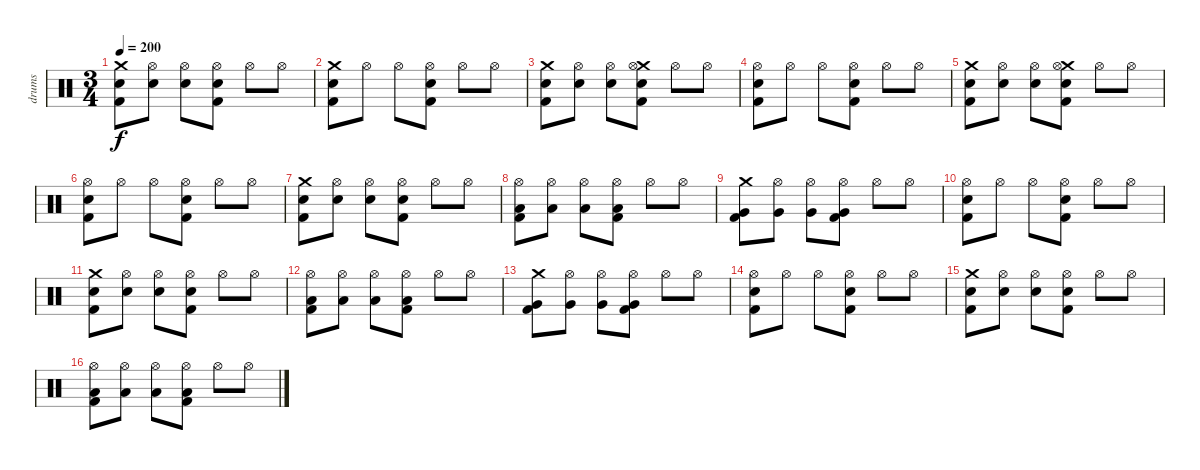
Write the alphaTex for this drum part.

\track ("drums" "drums") {instrument percussion}
\staff {score}
\articulation defaults
\ts (3 4)
\tempo 200
\clef neutral
\ks c
("Crash medium (hit)" "Snare (hit) 2" "Kick (hit) 2").8{dy f} ("Hi-Hat (open)" "Snare (hit) 2").8 ("Hi-Hat (open)" "Snare (hit) 2").8 ("Hi-Hat (open)" "Snare (hit) 2" "Kick (hit) 2").8 "Hi-Hat (open)".8 "Hi-Hat (open)".8 |
("Crash medium (hit)" "Snare (hit) 2" "Kick (hit) 2").8 "Hi-Hat (open)".8 "Hi-Hat (open)".8 ("Hi-Hat (open)" "Snare (hit) 2" "Kick (hit) 2").8 "Hi-Hat (open)".8 "Hi-Hat (open)".8 |
("Crash medium (hit)" "Snare (hit) 2" "Kick (hit) 2").8 ("Hi-Hat (open)" "Snare (hit) 2").8 ("Hi-Hat (open)" "Snare (hit) 2").8 ("Crash medium (hit)" "Hi-Hat (open)" "Snare (hit) 2" "Kick (hit) 2").8 "Hi-Hat (open)".8 "Hi-Hat (open)".8 |
("Hi-Hat (open)" "Snare (hit) 2" "Kick (hit) 2").8 "Hi-Hat (open)".8 "Hi-Hat (open)".8 ("Hi-Hat (open)" "Snare (hit) 2" "Kick (hit) 2").8 "Hi-Hat (open)".8 "Hi-Hat (open)".8 |
("Crash medium (hit)" "Snare (hit) 2" "Kick (hit) 2").8 ("Hi-Hat (open)" "Snare (hit) 2").8 ("Hi-Hat (open)" "Snare (hit) 2").8 ("Crash medium (hit)" "Hi-Hat (open)" "Snare (hit) 2" "Kick (hit) 2").8 "Hi-Hat (open)".8 "Hi-Hat (open)".8 |
("Hi-Hat (open)" "Snare (hit) 2" "Kick (hit) 2").8 "Hi-Hat (open)".8 "Hi-Hat (open)".8 ("Hi-Hat (open)" "Snare (hit) 2" "Kick (hit) 2").8 "Hi-Hat (open)".8 "Hi-Hat (open)".8 |
("Crash medium (hit)" "Snare (hit) 2" "Kick (hit) 2").8 ("Hi-Hat (open)" "Snare (hit) 2").8 ("Hi-Hat (open)" "Snare (hit) 2").8 ("Hi-Hat (open)" "Snare (hit) 2" "Kick (hit) 2").8 "Hi-Hat (open)".8 "Hi-Hat (open)".8 |
("Hi-Hat (open)" "Low Tom (hit)" "Kick (hit) 2").8 ("Hi-Hat (open)" "Low Tom (hit)").8 ("Hi-Hat (open)" "Low Tom (hit)").8 ("Hi-Hat (open)" "Low Tom (hit)" "Kick (hit) 2").8 "Hi-Hat (open)".8 "Hi-Hat (open)".8 |
("Crash medium (hit)" "Very Low Tom (hit)" "Kick (hit) 2").8 ("Hi-Hat (open)" "Very Low Tom (hit)").8 ("Hi-Hat (open)" "Very Low Tom (hit)").8 ("Hi-Hat (open)" "Very Low Tom (hit)" "Kick (hit) 2").8 "Hi-Hat (open)".8 "Hi-Hat (open)".8 |
("Hi-Hat (open)" "Snare (hit) 2" "Kick (hit) 2").8 "Hi-Hat (open)".8 "Hi-Hat (open)".8 ("Hi-Hat (open)" "Snare (hit) 2" "Kick (hit) 2").8 "Hi-Hat (open)".8 "Hi-Hat (open)".8 |
("Crash medium (hit)" "Snare (hit) 2" "Kick (hit) 2").8 ("Hi-Hat (open)" "Snare (hit) 2").8 ("Hi-Hat (open)" "Snare (hit) 2").8 ("Hi-Hat (open)" "Snare (hit) 2" "Kick (hit) 2").8 "Hi-Hat (open)".8 "Hi-Hat (open)".8 |
("Hi-Hat (open)" "Low Tom (hit)" "Kick (hit) 2").8 ("Hi-Hat (open)" "Low Tom (hit)").8 ("Hi-Hat (open)" "Low Tom (hit)").8 ("Hi-Hat (open)" "Low Tom (hit)" "Kick (hit) 2").8 "Hi-Hat (open)".8 "Hi-Hat (open)".8 |
("Crash medium (hit)" "Very Low Tom (hit)" "Kick (hit) 2").8 ("Hi-Hat (open)" "Very Low Tom (hit)").8 ("Hi-Hat (open)" "Very Low Tom (hit)").8 ("Hi-Hat (open)" "Very Low Tom (hit)" "Kick (hit) 2").8 "Hi-Hat (open)".8 "Hi-Hat (open)".8 |
("Hi-Hat (open)" "Snare (hit) 2" "Kick (hit) 2").8 "Hi-Hat (open)".8 "Hi-Hat (open)".8 ("Hi-Hat (open)" "Snare (hit) 2" "Kick (hit) 2").8 "Hi-Hat (open)".8 "Hi-Hat (open)".8 |
("Crash medium (hit)" "Snare (hit) 2" "Kick (hit) 2").8 ("Hi-Hat (open)" "Snare (hit) 2").8 ("Hi-Hat (open)" "Snare (hit) 2").8 ("Hi-Hat (open)" "Snare (hit) 2" "Kick (hit) 2").8 "Hi-Hat (open)".8 "Hi-Hat (open)".8 |
("Hi-Hat (open)" "Low Tom (hit)" "Kick (hit) 2").8 ("Hi-Hat (open)" "Low Tom (hit)").8 ("Hi-Hat (open)" "Low Tom (hit)").8 ("Hi-Hat (open)" "Low Tom (hit)" "Kick (hit) 2").8 "Hi-Hat (open)".8 "Hi-Hat (open)".8
